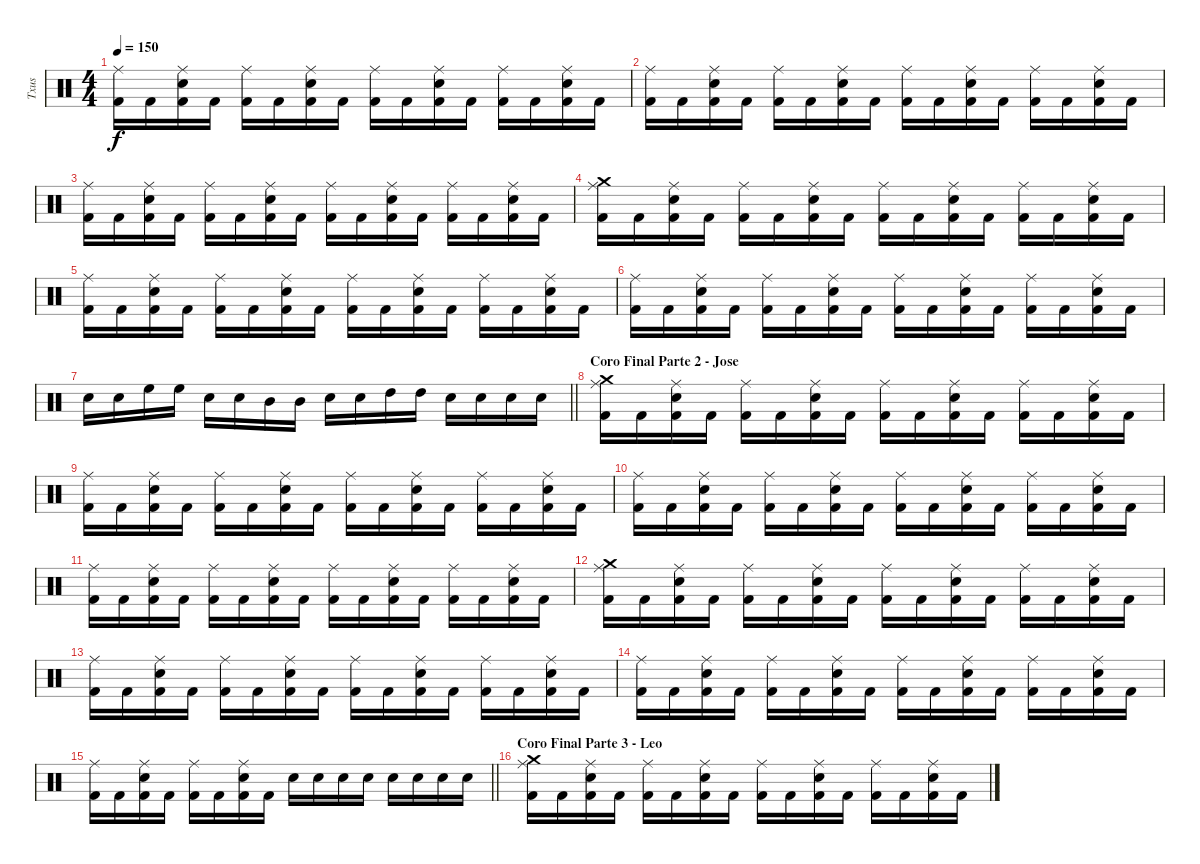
\track ("Txus" "Txus") {instrument percussion}
\staff {score}
\articulation defaults
\ts (4 4)
\tempo 150
\clef neutral
\ks c
("Ride (middle)" "Kick (hit) 2").16{dy f} "Kick (hit) 2".16 ("Ride (middle)" "Electric Snare (hit)" "Kick (hit) 2").16 "Kick (hit) 2".16 ("Ride (middle)" "Kick (hit) 2").16 "Kick (hit) 2".16 ("Ride (middle)" "Electric Snare (hit)" "Kick (hit) 2").16 "Kick (hit) 2".16 ("Ride (middle)" "Kick (hit) 2").16 "Kick (hit) 2".16 ("Ride (middle)" "Electric Snare (hit)" "Kick (hit) 2").16 "Kick (hit) 2".16 ("Ride (middle)" "Kick (hit) 2").16 "Kick (hit) 2".16 ("Ride (middle)" "Electric Snare (hit)" "Kick (hit) 2").16 "Kick (hit) 2".16 |
("Ride (middle)" "Kick (hit) 2").16 "Kick (hit) 2".16 ("Ride (middle)" "Electric Snare (hit)" "Kick (hit) 2").16 "Kick (hit) 2".16 ("Ride (middle)" "Kick (hit) 2").16 "Kick (hit) 2".16 ("Ride (middle)" "Electric Snare (hit)" "Kick (hit) 2").16 "Kick (hit) 2".16 ("Ride (middle)" "Kick (hit) 2").16 "Kick (hit) 2".16 ("Ride (middle)" "Electric Snare (hit)" "Kick (hit) 2").16 "Kick (hit) 2".16 ("Ride (middle)" "Kick (hit) 2").16 "Kick (hit) 2".16 ("Ride (middle)" "Electric Snare (hit)" "Kick (hit) 2").16 "Kick (hit) 2".16 |
("Ride (middle)" "Kick (hit) 2").16 "Kick (hit) 2".16 ("Ride (middle)" "Electric Snare (hit)" "Kick (hit) 2").16 "Kick (hit) 2".16 ("Ride (middle)" "Kick (hit) 2").16 "Kick (hit) 2".16 ("Ride (middle)" "Electric Snare (hit)" "Kick (hit) 2").16 "Kick (hit) 2".16 ("Ride (middle)" "Kick (hit) 2").16 "Kick (hit) 2".16 ("Ride (middle)" "Electric Snare (hit)" "Kick (hit) 2").16 "Kick (hit) 2".16 ("Ride (middle)" "Kick (hit) 2").16 "Kick (hit) 2".16 ("Ride (middle)" "Electric Snare (hit)" "Kick (hit) 2").16 "Kick (hit) 2".16 |
("Crash medium (hit)" "Ride (middle)" "Kick (hit) 2").16 "Kick (hit) 2".16 ("Ride (middle)" "Electric Snare (hit)" "Kick (hit) 2").16 "Kick (hit) 2".16 ("Ride (middle)" "Kick (hit) 2").16 "Kick (hit) 2".16 ("Ride (middle)" "Electric Snare (hit)" "Kick (hit) 2").16 "Kick (hit) 2".16 ("Ride (middle)" "Kick (hit) 2").16 "Kick (hit) 2".16 ("Ride (middle)" "Electric Snare (hit)" "Kick (hit) 2").16 "Kick (hit) 2".16 ("Ride (middle)" "Kick (hit) 2").16 "Kick (hit) 2".16 ("Ride (middle)" "Electric Snare (hit)" "Kick (hit) 2").16 "Kick (hit) 2".16 |
("Ride (middle)" "Kick (hit) 2").16 "Kick (hit) 2".16 ("Ride (middle)" "Electric Snare (hit)" "Kick (hit) 2").16 "Kick (hit) 2".16 ("Ride (middle)" "Kick (hit) 2").16 "Kick (hit) 2".16 ("Ride (middle)" "Electric Snare (hit)" "Kick (hit) 2").16 "Kick (hit) 2".16 ("Ride (middle)" "Kick (hit) 2").16 "Kick (hit) 2".16 ("Ride (middle)" "Electric Snare (hit)" "Kick (hit) 2").16 "Kick (hit) 2".16 ("Ride (middle)" "Kick (hit) 2").16 "Kick (hit) 2".16 ("Ride (middle)" "Electric Snare (hit)" "Kick (hit) 2").16 "Kick (hit) 2".16 |
("Ride (middle)" "Kick (hit) 2").16 "Kick (hit) 2".16 ("Ride (middle)" "Electric Snare (hit)" "Kick (hit) 2").16 "Kick (hit) 2".16 ("Ride (middle)" "Kick (hit) 2").16 "Kick (hit) 2".16 ("Ride (middle)" "Electric Snare (hit)" "Kick (hit) 2").16 "Kick (hit) 2".16 ("Ride (middle)" "Kick (hit) 2").16 "Kick (hit) 2".16 ("Ride (middle)" "Electric Snare (hit)" "Kick (hit) 2").16 "Kick (hit) 2".16 ("Ride (middle)" "Kick (hit) 2").16 "Kick (hit) 2".16 ("Ride (middle)" "Electric Snare (hit)" "Kick (hit) 2").16 "Kick (hit) 2".16 |
\barLineRight lightlight "Electric Snare (hit)".16 "Electric Snare (hit)".16 "High Floor Tom (hit)".16 "High Floor Tom (hit)".16 "Electric Snare (hit)".16 "Electric Snare (hit)".16 "Mid Tom (hit)".16 "Mid Tom (hit)".16 "Electric Snare (hit)".16 "Electric Snare (hit)".16 "High Tom (hit)".16 "High Tom (hit)".16 "Electric Snare (hit)".16 "Electric Snare (hit)".16 "Electric Snare (hit)".16 "Electric Snare (hit)".16
|
\section ("" "Coro Final Parte 2 - Jose")
("Crash medium (hit)" "Ride (middle)" "Kick (hit) 2").16 "Kick (hit) 2".16 ("Ride (middle)" "Electric Snare (hit)" "Kick (hit) 2").16 "Kick (hit) 2".16 ("Ride (middle)" "Kick (hit) 2").16 "Kick (hit) 2".16 ("Ride (middle)" "Electric Snare (hit)" "Kick (hit) 2").16 "Kick (hit) 2".16 ("Ride (middle)" "Kick (hit) 2").16 "Kick (hit) 2".16 ("Ride (middle)" "Electric Snare (hit)" "Kick (hit) 2").16 "Kick (hit) 2".16 ("Ride (middle)" "Kick (hit) 2").16 "Kick (hit) 2".16 ("Ride (middle)" "Electric Snare (hit)" "Kick (hit) 2").16 "Kick (hit) 2".16 |
("Ride (middle)" "Kick (hit) 2").16 "Kick (hit) 2".16 ("Ride (middle)" "Electric Snare (hit)" "Kick (hit) 2").16 "Kick (hit) 2".16 ("Ride (middle)" "Kick (hit) 2").16 "Kick (hit) 2".16 ("Ride (middle)" "Electric Snare (hit)" "Kick (hit) 2").16 "Kick (hit) 2".16 ("Ride (middle)" "Kick (hit) 2").16 "Kick (hit) 2".16 ("Ride (middle)" "Electric Snare (hit)" "Kick (hit) 2").16 "Kick (hit) 2".16 ("Ride (middle)" "Kick (hit) 2").16 "Kick (hit) 2".16 ("Ride (middle)" "Electric Snare (hit)" "Kick (hit) 2").16 "Kick (hit) 2".16 |
("Ride (middle)" "Kick (hit) 2").16 "Kick (hit) 2".16 ("Ride (middle)" "Electric Snare (hit)" "Kick (hit) 2").16 "Kick (hit) 2".16 ("Ride (middle)" "Kick (hit) 2").16 "Kick (hit) 2".16 ("Ride (middle)" "Electric Snare (hit)" "Kick (hit) 2").16 "Kick (hit) 2".16 ("Ride (middle)" "Kick (hit) 2").16 "Kick (hit) 2".16 ("Ride (middle)" "Electric Snare (hit)" "Kick (hit) 2").16 "Kick (hit) 2".16 ("Ride (middle)" "Kick (hit) 2").16 "Kick (hit) 2".16 ("Ride (middle)" "Electric Snare (hit)" "Kick (hit) 2").16 "Kick (hit) 2".16 |
("Ride (middle)" "Kick (hit) 2").16 "Kick (hit) 2".16 ("Ride (middle)" "Electric Snare (hit)" "Kick (hit) 2").16 "Kick (hit) 2".16 ("Ride (middle)" "Kick (hit) 2").16 "Kick (hit) 2".16 ("Ride (middle)" "Electric Snare (hit)" "Kick (hit) 2").16 "Kick (hit) 2".16 ("Ride (middle)" "Kick (hit) 2").16 "Kick (hit) 2".16 ("Ride (middle)" "Electric Snare (hit)" "Kick (hit) 2").16 "Kick (hit) 2".16 ("Ride (middle)" "Kick (hit) 2").16 "Kick (hit) 2".16 ("Ride (middle)" "Electric Snare (hit)" "Kick (hit) 2").16 "Kick (hit) 2".16 |
("Crash medium (hit)" "Ride (middle)" "Kick (hit) 2").16 "Kick (hit) 2".16 ("Ride (middle)" "Electric Snare (hit)" "Kick (hit) 2").16 "Kick (hit) 2".16 ("Ride (middle)" "Kick (hit) 2").16 "Kick (hit) 2".16 ("Ride (middle)" "Electric Snare (hit)" "Kick (hit) 2").16 "Kick (hit) 2".16 ("Ride (middle)" "Kick (hit) 2").16 "Kick (hit) 2".16 ("Ride (middle)" "Electric Snare (hit)" "Kick (hit) 2").16 "Kick (hit) 2".16 ("Ride (middle)" "Kick (hit) 2").16 "Kick (hit) 2".16 ("Ride (middle)" "Electric Snare (hit)" "Kick (hit) 2").16 "Kick (hit) 2".16 |
("Ride (middle)" "Kick (hit) 2").16 "Kick (hit) 2".16 ("Ride (middle)" "Electric Snare (hit)" "Kick (hit) 2").16 "Kick (hit) 2".16 ("Ride (middle)" "Kick (hit) 2").16 "Kick (hit) 2".16 ("Ride (middle)" "Electric Snare (hit)" "Kick (hit) 2").16 "Kick (hit) 2".16 ("Ride (middle)" "Kick (hit) 2").16 "Kick (hit) 2".16 ("Ride (middle)" "Electric Snare (hit)" "Kick (hit) 2").16 "Kick (hit) 2".16 ("Ride (middle)" "Kick (hit) 2").16 "Kick (hit) 2".16 ("Ride (middle)" "Electric Snare (hit)" "Kick (hit) 2").16 "Kick (hit) 2".16 |
("Ride (middle)" "Kick (hit) 2").16 "Kick (hit) 2".16 ("Ride (middle)" "Electric Snare (hit)" "Kick (hit) 2").16 "Kick (hit) 2".16 ("Ride (middle)" "Kick (hit) 2").16 "Kick (hit) 2".16 ("Ride (middle)" "Electric Snare (hit)" "Kick (hit) 2").16 "Kick (hit) 2".16 ("Ride (middle)" "Kick (hit) 2").16 "Kick (hit) 2".16 ("Ride (middle)" "Electric Snare (hit)" "Kick (hit) 2").16 "Kick (hit) 2".16 ("Ride (middle)" "Kick (hit) 2").16 "Kick (hit) 2".16 ("Ride (middle)" "Electric Snare (hit)" "Kick (hit) 2").16 "Kick (hit) 2".16 |
\barLineRight lightlight
("Ride (middle)" "Kick (hit) 2").16 "Kick (hit) 2".16 ("Ride (middle)" "Electric Snare (hit)" "Kick (hit) 2").16 "Kick (hit) 2".16 ("Ride (middle)" "Kick (hit) 2").16 "Kick (hit) 2".16 ("Ride (middle)" "Electric Snare (hit)" "Kick (hit) 2").16 "Kick (hit) 2".16 "Electric Snare (hit)".16 "Electric Snare (hit)".16 "Electric Snare (hit)".16 "Electric Snare (hit)".16 "Electric Snare (hit)".16 "Electric Snare (hit)".16 "Electric Snare (hit)".16 "Electric Snare (hit)".16 |
\section ("" "Coro Final Parte 3 - Leo")
("Crash medium (hit)" "Ride (middle)" "Kick (hit) 2").16 "Kick (hit) 2".16 ("Ride (middle)" "Electric Snare (hit)" "Kick (hit) 2").16 "Kick (hit) 2".16 ("Ride (middle)" "Kick (hit) 2").16 "Kick (hit) 2".16 ("Ride (middle)" "Electric Snare (hit)" "Kick (hit) 2").16 "Kick (hit) 2".16 ("Ride (middle)" "Kick (hit) 2").16 "Kick (hit) 2".16 ("Ride (middle)" "Electric Snare (hit)" "Kick (hit) 2").16 "Kick (hit) 2".16 ("Ride (middle)" "Kick (hit) 2").16 "Kick (hit) 2".16 ("Ride (middle)" "Electric Snare (hit)" "Kick (hit) 2").16 "Kick (hit) 2".16
